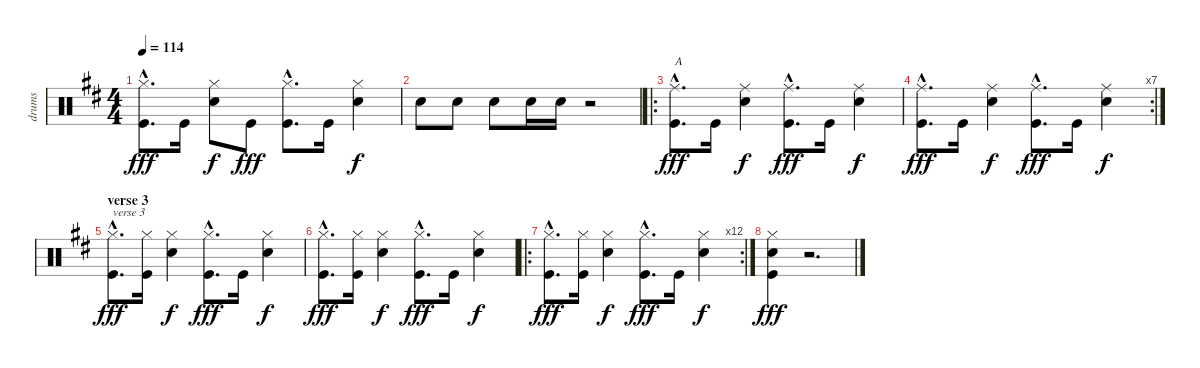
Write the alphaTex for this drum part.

\track ("drums" "drums") {instrument percussion}
\staff {score}
\articulation defaults
\ts (4 4)
\tempo 114
\clef neutral
\ks d
("Hi-Hat (closed)"{hac} "Kick (hit)"{hac}).8{d dy fff} "Kick (hit)".16 ("Hi-Hat (closed)" "Snare (hit) 2").8{dy f} "Kick (hit)".8{dy fff} ("Hi-Hat (closed)"{hac} "Kick (hit)"{hac}).8{d} "Kick (hit)".16 ("Hi-Hat (closed)" "Snare (hit) 2").4{dy f} |
"Snare (hit) 2".8 "Snare (hit) 2".8 "Snare (hit) 2".8 "Snare (hit) 2".16 "Snare (hit) 2".16 r.2 |
\ro
("Ride (middle)"{hac} "Kick (hit)"{hac}).8{d txt "A" dy fff} "Kick (hit)".16 ("Ride (middle)" "Snare (hit) 2").4{dy f} ("Ride (middle)"{hac} "Kick (hit)"{hac}).8{d dy fff} "Kick (hit)".16 ("Ride (middle)" "Snare (hit) 2").4{dy f} |
\rc 7
("Ride (middle)"{hac} "Kick (hit)"{hac}).8{d dy fff} "Kick (hit)".16 ("Ride (middle)" "Snare (hit) 2").4{dy f} ("Ride (middle)"{hac} "Kick (hit)"{hac}).8{d dy fff} "Kick (hit)".16 ("Ride (middle)" "Snare (hit) 2").4{dy f} |
\section ("" "verse 3")
("Hi-Hat (closed)"{hac} "Kick (hit)"{hac}).8{d txt "verse 3" dy fff} ("Hi-Hat (closed)" "Kick (hit)").16 ("Hi-Hat (closed)" "Snare (hit) 2").4{dy f} ("Hi-Hat (closed)"{hac} "Kick (hit)"{hac}).8{d dy fff} "Kick (hit)".16 ("Hi-Hat (closed)" "Snare (hit) 2").4{dy f} |
("Hi-Hat (closed)"{hac} "Kick (hit)"{hac}).8{d dy fff} ("Hi-Hat (closed)" "Kick (hit)").16 ("Hi-Hat (closed)" "Snare (hit) 2").4{dy f} ("Hi-Hat (closed)"{hac} "Kick (hit)"{hac}).8{d dy fff} "Kick (hit)".16 ("Hi-Hat (closed)" "Snare (hit) 2").4{dy f} |
\ro
\rc 12
("Hi-Hat (closed)"{hac} "Kick (hit)"{hac}).8{d dy fff} ("Hi-Hat (closed)" "Kick (hit)").16 ("Hi-Hat (closed)" "Snare (hit) 2").4{dy f} ("Hi-Hat (closed)"{hac} "Kick (hit)"{hac}).8{d dy fff} "Kick (hit)".16 ("Hi-Hat (closed)" "Snare (hit) 2").4{dy f} |
("Hi-Hat (closed)" "Snare (hit) 2" "Kick (hit)").4{dy fff} r.2{d}
